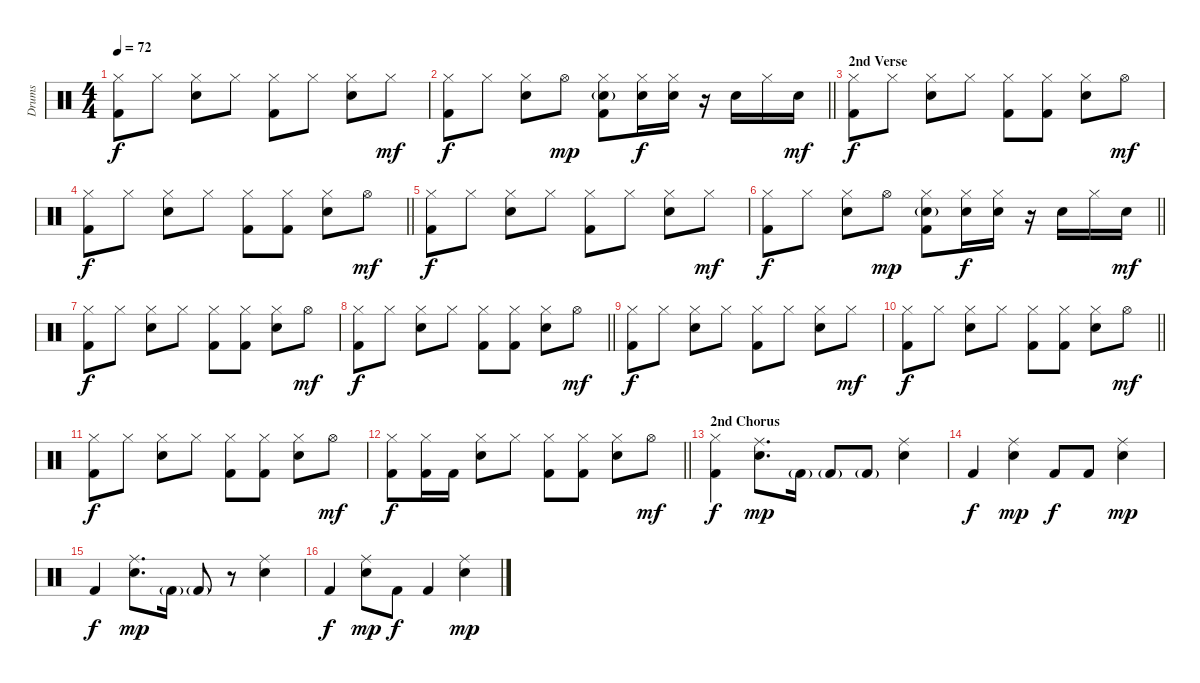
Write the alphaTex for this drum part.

\track ("Drums" "Drums") {instrument percussion}
\staff {score}
\articulation defaults
\ts (4 4)
\tempo 72
\clef neutral
\ks c
("Hi-Hat (closed)" "Kick (hit) 2").8{dy f} "Hi-Hat (closed)".8 ("Hi-Hat (closed)" "Electric Snare (hit)").8 "Hi-Hat (closed)".8 ("Hi-Hat (closed)" "Kick (hit) 2").8 "Hi-Hat (closed)".8 ("Hi-Hat (closed)" "Electric Snare (hit)").8 "Hi-Hat (closed)".8{dy mf} |
\barLineRight lightlight
("Hi-Hat (closed)" "Kick (hit) 2").8{dy f} "Hi-Hat (closed)".8 ("Hi-Hat (closed)" "Electric Snare (hit)").8 "Hi-Hat (open)".8{dy mp} ("Hi-Hat (closed)" "Electric Snare (hit)"{g} "Kick (hit) 2").8 ("Hi-Hat (closed)" "Electric Snare (hit)").16{dy f} ("Hi-Hat (closed)" "Electric Snare (hit)").16 r.16 "Electric Snare (hit)".16 "Hi-Hat (closed)".16 "Electric Snare (hit)".16{dy mf} |
\section ("" "2nd Verse")
("Hi-Hat (closed)" "Kick (hit) 2").8{dy f} "Hi-Hat (closed)".8 ("Hi-Hat (closed)" "Electric Snare (hit)").8 "Hi-Hat (closed)".8 ("Hi-Hat (closed)" "Kick (hit) 2").8 ("Hi-Hat (closed)" "Kick (hit) 2").8 ("Hi-Hat (closed)" "Electric Snare (hit)").8 "Hi-Hat (open)".8{dy mf} |
\barLineRight lightlight
("Hi-Hat (closed)" "Kick (hit) 2").8{dy f} "Hi-Hat (closed)".8 ("Hi-Hat (closed)" "Electric Snare (hit)").8 "Hi-Hat (closed)".8 ("Hi-Hat (closed)" "Kick (hit) 2").8 ("Hi-Hat (closed)" "Kick (hit) 2").8 ("Hi-Hat (closed)" "Electric Snare (hit)").8 "Hi-Hat (open)".8{dy mf} |
("Hi-Hat (closed)" "Kick (hit) 2").8{dy f} "Hi-Hat (closed)".8 ("Hi-Hat (closed)" "Electric Snare (hit)").8 "Hi-Hat (closed)".8 ("Hi-Hat (closed)" "Kick (hit) 2").8 "Hi-Hat (closed)".8 ("Hi-Hat (closed)" "Electric Snare (hit)").8 "Hi-Hat (closed)".8{dy mf} |
\barLineRight lightlight
("Hi-Hat (closed)" "Kick (hit) 2").8{dy f} "Hi-Hat (closed)".8 ("Hi-Hat (closed)" "Electric Snare (hit)").8 "Hi-Hat (open)".8{dy mp} ("Hi-Hat (closed)" "Electric Snare (hit)"{g} "Kick (hit) 2").8 ("Hi-Hat (closed)" "Electric Snare (hit)").16{dy f} ("Hi-Hat (closed)" "Electric Snare (hit)").16 r.16 "Electric Snare (hit)".16 "Hi-Hat (closed)".16 "Electric Snare (hit)".16{dy mf} |
("Hi-Hat (closed)" "Kick (hit) 2").8{dy f} "Hi-Hat (closed)".8 ("Hi-Hat (closed)" "Electric Snare (hit)").8 "Hi-Hat (closed)".8 ("Hi-Hat (closed)" "Kick (hit) 2").8 ("Hi-Hat (closed)" "Kick (hit) 2").8 ("Hi-Hat (closed)" "Electric Snare (hit)").8 "Hi-Hat (open)".8{dy mf} |
\barLineRight lightlight
("Hi-Hat (closed)" "Kick (hit) 2").8{dy f} "Hi-Hat (closed)".8 ("Hi-Hat (closed)" "Electric Snare (hit)").8 "Hi-Hat (closed)".8 ("Hi-Hat (closed)" "Kick (hit) 2").8 ("Hi-Hat (closed)" "Kick (hit) 2").8 ("Hi-Hat (closed)" "Electric Snare (hit)").8 "Hi-Hat (open)".8{dy mf} |
("Hi-Hat (closed)" "Kick (hit) 2").8{dy f} "Hi-Hat (closed)".8 ("Hi-Hat (closed)" "Electric Snare (hit)").8 "Hi-Hat (closed)".8 ("Hi-Hat (closed)" "Kick (hit) 2").8 "Hi-Hat (closed)".8 ("Hi-Hat (closed)" "Electric Snare (hit)").8 "Hi-Hat (closed)".8{dy mf} |
\barLineRight lightlight
("Hi-Hat (closed)" "Kick (hit) 2").8{dy f} "Hi-Hat (closed)".8 ("Hi-Hat (closed)" "Electric Snare (hit)").8 "Hi-Hat (closed)".8 ("Hi-Hat (closed)" "Kick (hit) 2").8 ("Hi-Hat (closed)" "Kick (hit) 2").8 ("Hi-Hat (closed)" "Electric Snare (hit)").8 "Hi-Hat (open)".8{dy mf} |
("Hi-Hat (closed)" "Kick (hit) 2").8{dy f} "Hi-Hat (closed)".8 ("Hi-Hat (closed)" "Electric Snare (hit)").8 "Hi-Hat (closed)".8 ("Hi-Hat (closed)" "Kick (hit) 2").8 ("Hi-Hat (closed)" "Kick (hit) 2").8 ("Hi-Hat (closed)" "Electric Snare (hit)").8 "Hi-Hat (open)".8{dy mf} |
\barLineRight lightlight
("Hi-Hat (closed)" "Kick (hit) 2").8{dy f} ("Hi-Hat (closed)" "Kick (hit) 2").16 "Kick (hit) 2".16 ("Hi-Hat (closed)" "Electric Snare (hit)").8 "Hi-Hat (closed)".8 ("Hi-Hat (closed)" "Kick (hit) 2").8 ("Hi-Hat (closed)" "Kick (hit) 2").8 ("Hi-Hat (closed)" "Electric Snare (hit)").8 "Hi-Hat (open)".8{dy mf} |
\section ("" "2nd Chorus")
("Hi-Hat (closed)" "Kick (hit) 2").4{dy f} ("Ride (middle)" "Electric Snare (hit)").8{d dy mp} "Kick (hit) 2"{g}.16 "Kick (hit) 2"{g}.8 "Kick (hit) 2"{g}.8 ("Ride (middle)" "Electric Snare (hit)").4 |
"Kick (hit) 2".4{dy f} ("Ride (middle)" "Electric Snare (hit)").4{dy mp} "Kick (hit) 2".8{dy f} "Kick (hit) 2".8 ("Ride (middle)" "Electric Snare (hit)").4{dy mp} |
"Kick (hit) 2".4{dy f} ("Ride (middle)" "Electric Snare (hit)").8{d dy mp} "Kick (hit) 2"{g}.16 "Kick (hit) 2"{g}.8 r.8 ("Ride (middle)" "Electric Snare (hit)").4 |
"Kick (hit) 2".4{dy f} ("Ride (middle)" "Electric Snare (hit)").8{dy mp} "Kick (hit) 2".8{dy f} "Kick (hit) 2".4 ("Ride (middle)" "Electric Snare (hit)").4{dy mp}
